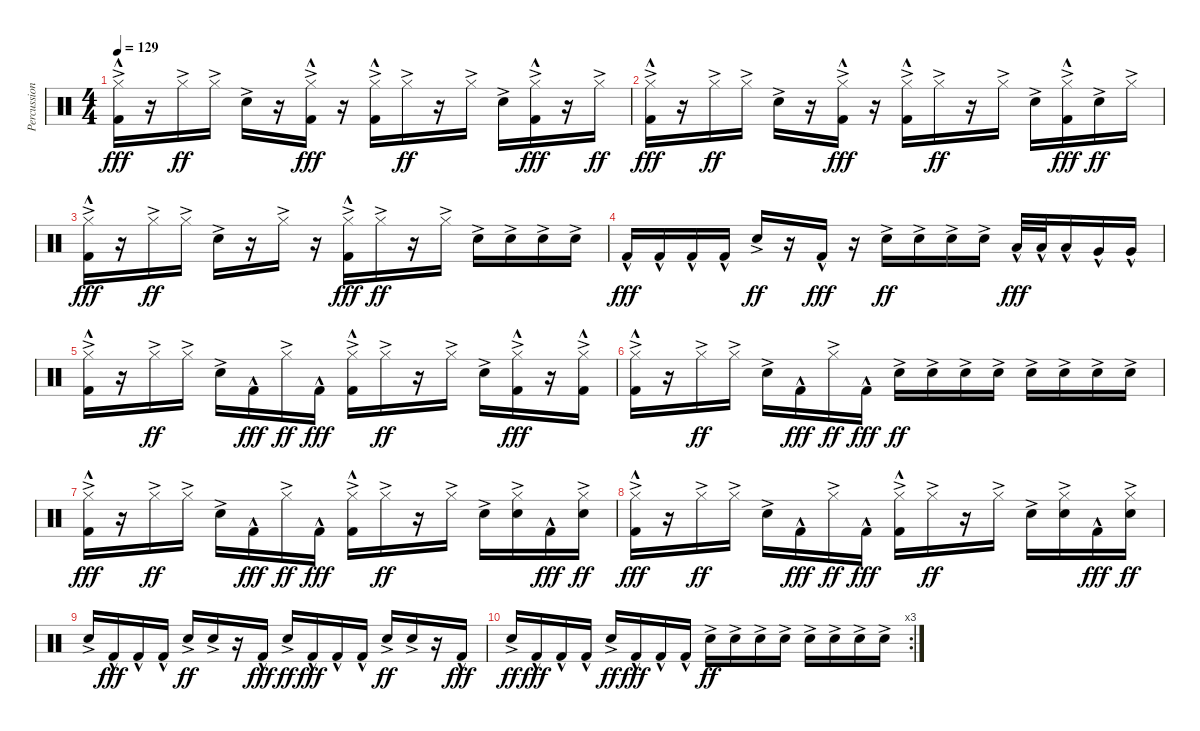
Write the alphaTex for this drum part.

\track ("Percussion" "Percussion") {instrument percussion}
\staff {score}
\articulation defaults
\ts (4 4)
\tempo 129
\clef neutral
\ks c
("Hi-Hat (closed)"{ac} "Kick (hit) 2"{hac}).16{dy fff} r.16 "Hi-Hat (closed)"{ac}.16{dy ff} "Hi-Hat (closed)"{ac}.16 "Snare (hit) 2"{ac}.16 r.16 ("Hi-Hat (closed)"{ac} "Kick (hit) 2"{hac}).16{dy fff} r.16 ("Hi-Hat (closed)"{ac} "Kick (hit) 2"{hac}).16 "Hi-Hat (closed)"{ac}.16{dy ff} r.16 "Hi-Hat (closed)"{ac}.16 "Snare (hit) 2"{ac}.16 ("Hi-Hat (closed)"{ac} "Kick (hit) 2"{hac}).16{dy fff} r.16 "Hi-Hat (closed)"{ac}.16{dy ff} |
("Hi-Hat (closed)"{ac} "Kick (hit) 2"{hac}).16{dy fff} r.16 "Hi-Hat (closed)"{ac}.16{dy ff} "Hi-Hat (closed)"{ac}.16 "Snare (hit) 2"{ac}.16 r.16 ("Hi-Hat (closed)"{ac} "Kick (hit) 2"{hac}).16{dy fff} r.16 ("Hi-Hat (closed)"{ac} "Kick (hit) 2"{hac}).16 "Hi-Hat (closed)"{ac}.16{dy ff} r.16 "Hi-Hat (closed)"{ac}.16 "Snare (hit) 2"{ac}.16 ("Hi-Hat (closed)"{ac} "Kick (hit) 2"{hac}).16{dy fff} "Snare (hit) 2"{ac}.16{dy ff} "Hi-Hat (closed)"{ac}.16 |
("Hi-Hat (closed)"{ac} "Kick (hit) 2"{hac}).16{dy fff} r.16 "Hi-Hat (closed)"{ac}.16{dy ff} "Hi-Hat (closed)"{ac}.16 "Snare (hit) 2"{ac}.16 r.16 "Hi-Hat (closed)"{ac}.16 r.16 ("Hi-Hat (closed)"{ac} "Kick (hit) 2"{hac}).16{dy fff} "Hi-Hat (closed)"{ac}.16{dy ff} r.16 "Hi-Hat (closed)"{ac}.16 "Snare (hit) 2"{ac}.16 "Snare (hit) 2"{ac}.16 "Snare (hit) 2"{ac}.16 "Snare (hit) 2"{ac}.16 |
"Kick (hit) 2"{hac}.16{dy fff} "Kick (hit) 2"{hac}.16 "Kick (hit) 2"{hac}.16 "Kick (hit) 2"{hac}.16 "Snare (hit) 2"{ac}.16{dy ff} r.16 "Kick (hit) 2"{hac}.16{dy fff} r.16 "Snare (hit) 2"{ac}.16{dy ff} "Snare (hit) 2"{ac}.16 "Snare (hit) 2"{ac}.16 "Snare (hit) 2"{ac}.16 "Low Tom (hit)"{hac}.32{dy fff} "Low Tom (hit)"{hac}.32 "Low Tom (hit)"{hac}.16 "Very Low Tom (hit)"{hac}.16 "Very Low Tom (hit)"{hac}.16 |
("Hi-Hat (closed)"{ac} "Kick (hit) 2"{hac}).16 r.16 "Hi-Hat (closed)"{ac}.16{dy ff} "Hi-Hat (closed)"{ac}.16 "Snare (hit) 2"{ac}.16 "Kick (hit) 2"{hac}.16{dy fff} "Hi-Hat (closed)"{ac}.16{dy ff} "Kick (hit) 2"{hac}.16{dy fff} ("Hi-Hat (closed)"{ac} "Kick (hit) 2"{hac}).16 "Hi-Hat (closed)"{ac}.16{dy ff} r.16 "Hi-Hat (closed)"{ac}.16 "Snare (hit) 2"{ac}.16 ("Hi-Hat (closed)"{ac} "Kick (hit) 2"{hac}).16{dy fff} r.16 ("Hi-Hat (closed)"{ac} "Kick (hit) 2"{hac}).16 |
("Hi-Hat (closed)"{ac} "Kick (hit) 2"{hac}).16 r.16 "Hi-Hat (closed)"{ac}.16{dy ff} "Hi-Hat (closed)"{ac}.16 "Snare (hit) 2"{ac}.16 "Kick (hit) 2"{hac}.16{dy fff} "Hi-Hat (closed)"{ac}.16{dy ff} "Kick (hit) 2"{hac}.16{dy fff} "Snare (hit) 2"{ac}.16{dy ff} "Snare (hit) 2"{ac}.16 "Snare (hit) 2"{ac}.16 "Snare (hit) 2"{ac}.16 "Snare (hit) 2"{ac}.16 "Snare (hit) 2"{ac}.16 "Snare (hit) 2"{ac}.16 "Snare (hit) 2"{ac}.16 |
("Hi-Hat (closed)"{ac} "Kick (hit) 2"{hac}).16{dy fff} r.16 "Hi-Hat (closed)"{ac}.16{dy ff} "Hi-Hat (closed)"{ac}.16 "Snare (hit) 2"{ac}.16 "Kick (hit) 2"{hac}.16{dy fff} "Hi-Hat (closed)"{ac}.16{dy ff} "Kick (hit) 2"{hac}.16{dy fff} ("Hi-Hat (closed)"{ac} "Kick (hit) 2"{hac}).16 "Hi-Hat (closed)"{ac}.16{dy ff} r.16 "Hi-Hat (closed)"{ac}.16 "Snare (hit) 2"{ac}.16 ("Hi-Hat (closed)"{ac} "Snare (hit) 2"{ac}).16 "Kick (hit) 2"{hac}.16{dy fff} ("Hi-Hat (closed)"{ac} "Snare (hit) 2"{ac}).16{dy ff} |
("Hi-Hat (closed)"{ac} "Kick (hit) 2"{hac}).16{dy fff} r.16 "Hi-Hat (closed)"{ac}.16{dy ff} "Hi-Hat (closed)"{ac}.16 "Snare (hit) 2"{ac}.16 "Kick (hit) 2"{hac}.16{dy fff} "Hi-Hat (closed)"{ac}.16{dy ff} "Kick (hit) 2"{hac}.16{dy fff} ("Hi-Hat (closed)"{ac} "Kick (hit) 2"{hac}).16 "Hi-Hat (closed)"{ac}.16{dy ff} r.16 "Hi-Hat (closed)"{ac}.16 "Snare (hit) 2"{ac}.16 ("Hi-Hat (closed)"{ac} "Snare (hit) 2"{ac}).16 "Kick (hit) 2"{hac}.16{dy fff} ("Hi-Hat (closed)"{ac} "Snare (hit) 2"{ac}).16{dy ff} |
"Snare (hit) 2"{ac}.16 "Kick (hit) 2"{hac}.16{dy fff} "Kick (hit) 2"{hac}.16 "Kick (hit) 2"{hac}.16 "Snare (hit) 2"{ac}.16{dy ff} "Snare (hit) 2"{ac}.16 r.16 "Kick (hit) 2"{hac}.16{dy fff} "Snare (hit) 2"{ac}.16{dy ff} "Kick (hit) 2"{hac}.16{dy fff} "Kick (hit) 2"{hac}.16 "Kick (hit) 2"{hac}.16 "Snare (hit) 2"{ac}.16{dy ff} "Snare (hit) 2"{ac}.16 r.16 "Kick (hit) 2"{hac}.16{dy fff} |
\rc 3 "Snare (hit) 2"{ac}.16{dy ff} "Kick (hit) 2"{hac}.16{dy fff} "Kick (hit) 2"{hac}.16 "Kick (hit) 2"{hac}.16 "Snare (hit) 2"{ac}.16{dy ff} "Kick (hit) 2"{hac}.16{dy fff} "Kick (hit) 2"{hac}.16 "Kick (hit) 2"{hac}.16 "Snare (hit) 2"{ac}.16{dy ff} "Snare (hit) 2"{ac}.16 "Snare (hit) 2"{ac}.16 "Snare (hit) 2"{ac}.16 "Snare (hit) 2"{ac}.16 "Snare (hit) 2"{ac}.16 "Snare (hit) 2"{ac}.16 "Snare (hit) 2"{ac}.16
